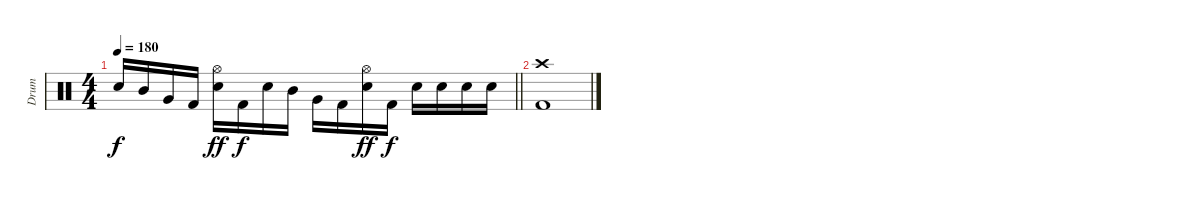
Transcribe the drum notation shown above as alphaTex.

\track ("Drum" "Drum") {instrument percussion}
\staff {score}
\articulation defaults
\ts (4 4)
\tempo 180
\clef neutral
\barLineRight lightlight
\ks c "Electric Snare (hit)".16{dy f} "Mid Tom (hit)".16 "Very Low Tom (hit)".16 "Kick (hit) 2".16
("Hi-Hat (open)" "Electric Snare (hit)").16{dy ff} "Kick (hit) 2".16{dy f} "Electric Snare (hit)".16 "Mid Tom (hit)".16 "Very Low Tom (hit)".16 "Kick (hit) 2".16 ("Hi-Hat (open)" "Electric Snare (hit)").16{dy ff} "Kick (hit) 2".16{dy f} "Electric Snare (hit)".16 "Electric Snare (hit)".16 "Electric Snare (hit)".16 "Electric Snare (hit)".16 |
("Crash high (hit)" "Kick (hit) 2").1
